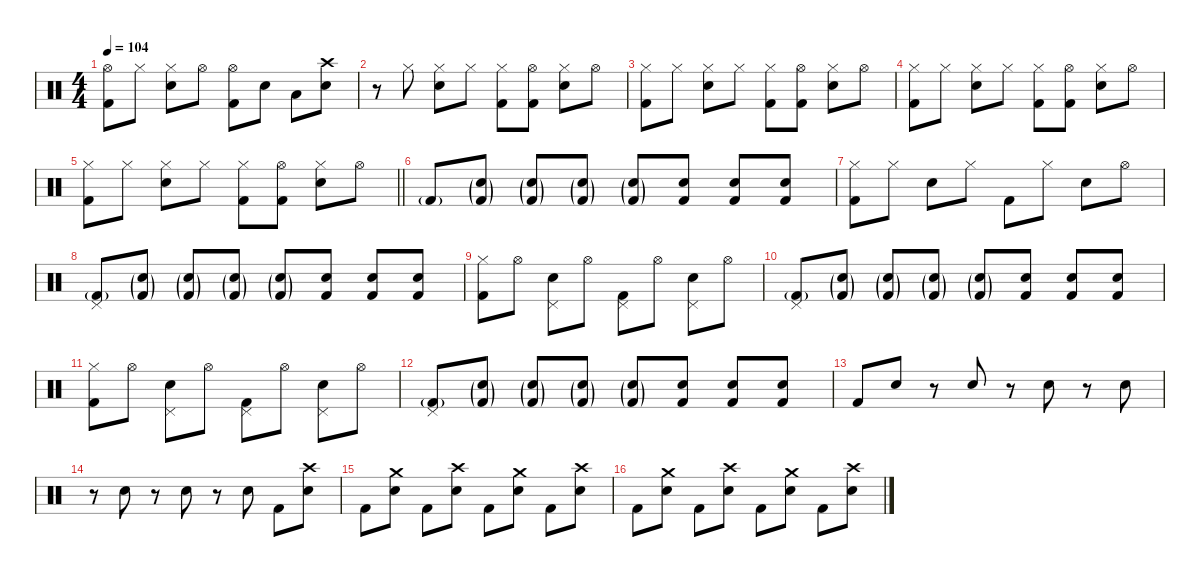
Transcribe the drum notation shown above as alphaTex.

\defaultSystemsLayout 4
\hideDynamics
\bracketExtendMode nobrackets
\singleTrackTrackNamePolicy hidden
\multiTrackTrackNamePolicy hidden
\firstSystemTrackNameMode fullname
\firstSystemTrackNameOrientation horizontal
\otherSystemsTrackNameOrientation horizontal
\track ("Drums" "drm.") {instrument percussion}
\staff {score}
\articulation defaults
\ts (4 4)
\tempo 104
\clef neutral
\ks c
("Hi-Hat (open)" "Kick (hit) 2").8{dy f beam Down} "Hi-Hat (closed)".8{beam Down} ("Hi-Hat (closed)" "Snare (hit) 2").8{beam Down} "Hi-Hat (open)".8{beam Down} ("Hi-Hat (open)" "Kick (hit) 2").8{beam Down} "Snare (hit) 2".8{beam Down} "Low Tom (hit)".8{beam Down} ("Crash high (hit)" "Snare (hit) 2").8{beam Down} |
r.8{beam Down} "Hi-Hat (closed)".8{beam Down} ("Hi-Hat (closed)" "Snare (hit) 2").8{beam Down} "Hi-Hat (closed)".8{beam Down} ("Hi-Hat (closed)" "Kick (hit) 2").8{beam Down} ("Hi-Hat (open)" "Kick (hit) 2").8{beam Down} ("Hi-Hat (closed)" "Snare (hit) 2").8{beam Down} "Hi-Hat (open)".8{beam Down} |
("Hi-Hat (closed)" "Kick (hit) 2").8{beam Down} "Hi-Hat (closed)".8{beam Down} ("Hi-Hat (closed)" "Snare (hit) 2").8{beam Down} "Hi-Hat (closed)".8{beam Down} ("Hi-Hat (closed)" "Kick (hit) 2").8{beam Down} ("Hi-Hat (open)" "Kick (hit) 2").8{beam Down} ("Hi-Hat (closed)" "Snare (hit) 2").8{beam Down} "Hi-Hat (open)".8{beam Down} |
("Hi-Hat (closed)" "Kick (hit) 2").8{beam Down} "Hi-Hat (closed)".8{beam Down} ("Hi-Hat (closed)" "Snare (hit) 2").8{beam Down} "Hi-Hat (closed)".8{beam Down} ("Hi-Hat (closed)" "Kick (hit) 2").8{beam Down} ("Hi-Hat (open)" "Kick (hit) 2").8{beam Down} ("Hi-Hat (closed)" "Snare (hit) 2").8{beam Down} "Hi-Hat (open)".8{beam Down} |
\barLineRight lightlight
("Hi-Hat (closed)" "Kick (hit) 2").8{beam Down} "Hi-Hat (closed)".8{beam Down} ("Hi-Hat (closed)" "Snare (hit) 2").8{beam Down} "Hi-Hat (closed)".8{beam Down} ("Hi-Hat (closed)" "Kick (hit) 2").8{beam Down} ("Hi-Hat (open)" "Kick (hit) 2").8{beam Down} ("Hi-Hat (closed)" "Snare (hit) 2").8{beam Down} "Hi-Hat (open)".8{beam Down} |
\section ("" "")
"Kick (hit) 2"{g}.8{dy mp beam Up} ("Snare (hit) 2"{g} "Kick (hit) 2"{g}).8{beam Up} ("Snare (hit) 2"{g} "Kick (hit) 2"{g}).8{beam Up} ("Snare (hit) 2"{g} "Kick (hit) 2"{g}).8{dy mf beam Up} ("Snare (hit) 2"{g} "Kick (hit) 2"{g}).8{beam Up} ("Snare (hit) 2" "Kick (hit) 2").8{beam Up} ("Snare (hit) 2" "Kick (hit) 2").8{beam Up} ("Snare (hit) 2" "Kick (hit) 2").8{beam Up} |
("Hi-Hat (closed)" "Kick (hit) 2").8{dy f beam Down} "Hi-Hat (closed)".8{beam Down} "Snare (hit) 2".8{beam Down} "Hi-Hat (closed)".8{beam Down} "Kick (hit) 2".8{beam Down} "Hi-Hat (closed)".8{beam Down} "Snare (hit) 2".8{beam Down} "Hi-Hat (open)".8{beam Down} |
("Pedal Hi-Hat (hit)" "Kick (hit) 2"{g}).8{dy mf beam Up} ("Snare (hit) 2"{g} "Kick (hit) 2"{g}).8{dy mp beam Up} ("Snare (hit) 2"{g} "Kick (hit) 2"{g}).8{beam Up} ("Snare (hit) 2"{g} "Kick (hit) 2"{g}).8{dy mf beam Up} ("Snare (hit) 2"{g} "Kick (hit) 2"{g}).8{beam Up} ("Snare (hit) 2" "Kick (hit) 2").8{beam Up} ("Snare (hit) 2" "Kick (hit) 2").8{beam Up} ("Snare (hit) 2" "Kick (hit) 2").8{beam Up} |
("Hi-Hat (closed)" "Kick (hit) 2").8{dy f beam Down} "Hi-Hat (open)".8{beam Down} ("Pedal Hi-Hat (hit)" "Snare (hit) 2").8{beam Down} "Hi-Hat (open)".8{beam Down} ("Pedal Hi-Hat (hit)" "Kick (hit) 2").8{beam Down} "Hi-Hat (open)".8{beam Down} ("Pedal Hi-Hat (hit)" "Snare (hit) 2").8{beam Down} "Hi-Hat (open)".8{beam Down} |
("Pedal Hi-Hat (hit)" "Kick (hit) 2"{g}).8{dy mf beam Up} ("Snare (hit) 2"{g} "Kick (hit) 2"{g}).8{dy mp beam Up} ("Snare (hit) 2"{g} "Kick (hit) 2"{g}).8{beam Up} ("Snare (hit) 2"{g} "Kick (hit) 2"{g}).8{dy mf beam Up} ("Snare (hit) 2"{g} "Kick (hit) 2"{g}).8{beam Up} ("Snare (hit) 2" "Kick (hit) 2").8{beam Up} ("Snare (hit) 2" "Kick (hit) 2").8{beam Up} ("Snare (hit) 2" "Kick (hit) 2").8{beam Up} |
("Hi-Hat (closed)" "Kick (hit) 2").8{dy f beam Down} "Hi-Hat (open)".8{beam Down} ("Pedal Hi-Hat (hit)" "Snare (hit) 2").8{beam Down} "Hi-Hat (open)".8{beam Down} ("Pedal Hi-Hat (hit)" "Kick (hit) 2").8{beam Down} "Hi-Hat (open)".8{beam Down} ("Pedal Hi-Hat (hit)" "Snare (hit) 2").8{beam Down} "Hi-Hat (open)".8{beam Down} |
("Pedal Hi-Hat (hit)" "Kick (hit) 2"{g}).8{dy mf beam Up} ("Snare (hit) 2"{g} "Kick (hit) 2"{g}).8{dy mp beam Up} ("Snare (hit) 2"{g} "Kick (hit) 2"{g}).8{beam Up} ("Snare (hit) 2"{g} "Kick (hit) 2"{g}).8{dy mf beam Up} ("Snare (hit) 2"{g} "Kick (hit) 2"{g}).8{beam Up} ("Snare (hit) 2" "Kick (hit) 2").8{beam Up} ("Snare (hit) 2" "Kick (hit) 2").8{beam Up} ("Snare (hit) 2" "Kick (hit) 2").8{beam Up} |
"Kick (hit) 2".8{dy f beam Up} "Snare (hit) 2".8{beam Up} r.8{beam Up} "Snare (hit) 2".8{beam Down} r.8{beam Down} "Snare (hit) 2".8{beam Down} r.8{beam Down} "Snare (hit) 2".8{beam Down} |
r.8{beam Down} "Snare (hit) 2".8{beam Down} r.8{beam Down} "Snare (hit) 2".8{beam Down} r.8{beam Down} "Snare (hit) 2".8{beam Down} "Kick (hit) 2".8{beam Down} ("Crash high (hit)" "Snare (hit) 2").8{beam Down} |
"Kick (hit) 2".8{beam Down} ("Crash medium (hit)" "Snare (hit) 2").8{beam Down} "Kick (hit) 2".8{beam Down} ("Crash high (hit)" "Snare (hit) 2").8{beam Down} "Kick (hit) 2".8{beam Down} ("Crash medium (hit)" "Snare (hit) 2").8{beam Down} "Kick (hit) 2".8{beam Down} ("Crash high (hit)" "Snare (hit) 2").8{beam Down} |
"Kick (hit) 2".8{beam Down} ("Crash medium (hit)" "Snare (hit) 2").8{beam Down} "Kick (hit) 2".8{beam Down} ("Crash high (hit)" "Snare (hit) 2").8{beam Down} "Kick (hit) 2".8{beam Down} ("Crash medium (hit)" "Snare (hit) 2").8{beam Down} "Kick (hit) 2".8{beam Down} ("Crash high (hit)" "Snare (hit) 2").8{beam Down}
